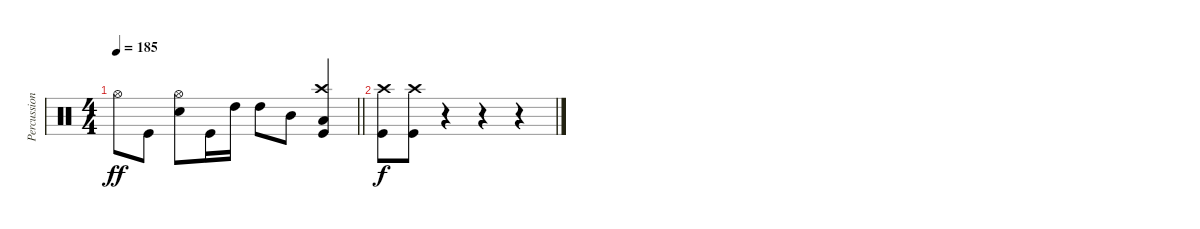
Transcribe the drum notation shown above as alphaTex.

\track ("Percussion" "Percussion") {instrument percussion}
\staff {score}
\articulation defaults
\ts (4 4)
\tempo 185
\clef neutral
\barLineRight lightlight
\ks c "Hi-Hat (open)".8{dy ff} "Kick (hit)".8
("Snare (hit) 2" "Hi-Hat (open)").8 "Kick (hit)".16 "High Tom (hit)".16 "High Tom (hit)".8 "Mid Tom (hit)".8 ("Crash high (hit)" "Low Tom (hit)" "Kick (hit)").4 |
("Crash high (hit)" "Kick (hit)").8{dy f} ("Kick (hit)" "Crash high (hit)").8 r.4 r.4 r.4
